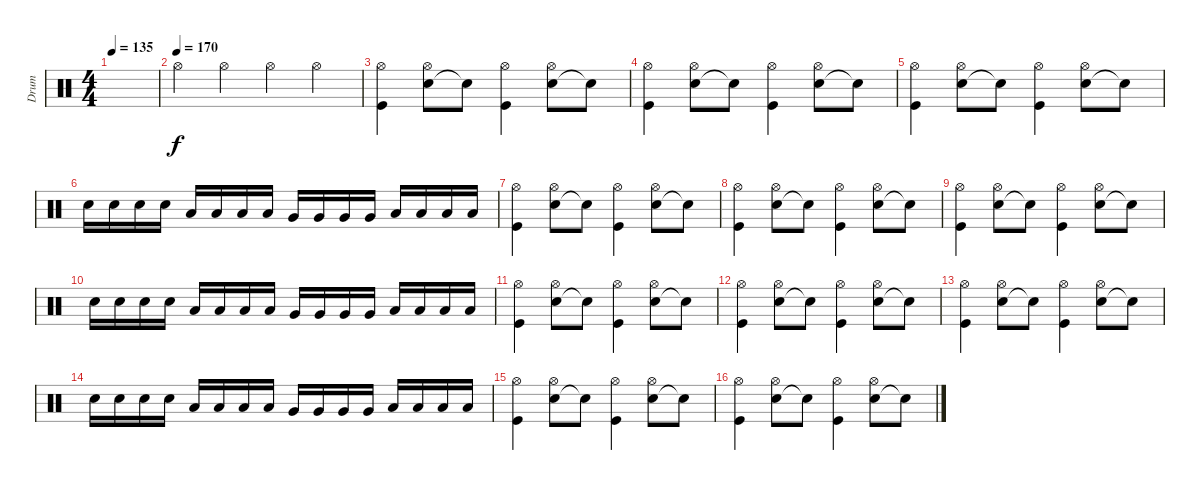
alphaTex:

\track ("Drum" "Drum") {instrument percussion}
\staff {score}
\articulation defaults
\ts (4 4)
\tempo 135
\clef neutral
\ks c
|
\tempo (170)
"Hi-Hat (open)".4 "Hi-Hat (open)".4 "Hi-Hat (open)".4 "Hi-Hat (open)".4 |
("Hi-Hat (open)" "Kick (hit)").4 ("Snare (hit) 2" "Hi-Hat (open)").8 "Electric Snare (hit)"{t}.8 ("Hi-Hat (open)" "Kick (hit)").4 ("Snare (hit) 2" "Hi-Hat (open)").8 "Electric Snare (hit)"{t}.8 |
("Hi-Hat (open)" "Kick (hit)").4 ("Snare (hit) 2" "Hi-Hat (open)").8 "Electric Snare (hit)"{t}.8 ("Hi-Hat (open)" "Kick (hit)").4 ("Snare (hit) 2" "Hi-Hat (open)").8 "Electric Snare (hit)"{t}.8 |
("Hi-Hat (open)" "Kick (hit)").4 ("Snare (hit) 2" "Hi-Hat (open)").8 "Electric Snare (hit)"{t}.8 ("Hi-Hat (open)" "Kick (hit)").4 ("Snare (hit) 2" "Hi-Hat (open)").8 "Electric Snare (hit)"{t}.8 |
"Electric Snare (hit)".16 "Electric Snare (hit)".16 "Electric Snare (hit)".16 "Electric Snare (hit)".16 "Low Tom (hit)".16 "Low Tom (hit)".16 "Low Tom (hit)".16 "Low Tom (hit)".16 "Very Low Tom (hit)".16 "Very Low Tom (hit)".16 "Very Low Tom (hit)".16 "Very Low Tom (hit)".16 "Low Floor Tom (hit)".16 "Low Floor Tom (hit)".16 "Low Floor Tom (hit)".16 "Low Floor Tom (hit)".16 |
("Hi-Hat (open)" "Kick (hit)").4 ("Snare (hit) 2" "Hi-Hat (open)").8 "Electric Snare (hit)"{t}.8 ("Hi-Hat (open)" "Kick (hit)").4 ("Snare (hit) 2" "Hi-Hat (open)").8 "Electric Snare (hit)"{t}.8 |
("Hi-Hat (open)" "Kick (hit)").4 ("Snare (hit) 2" "Hi-Hat (open)").8 "Electric Snare (hit)"{t}.8 ("Hi-Hat (open)" "Kick (hit)").4 ("Snare (hit) 2" "Hi-Hat (open)").8 "Electric Snare (hit)"{t}.8 |
("Hi-Hat (open)" "Kick (hit)").4 ("Snare (hit) 2" "Hi-Hat (open)").8 "Electric Snare (hit)"{t}.8 ("Hi-Hat (open)" "Kick (hit)").4 ("Snare (hit) 2" "Hi-Hat (open)").8 "Electric Snare (hit)"{t}.8 |
"Electric Snare (hit)".16 "Electric Snare (hit)".16 "Electric Snare (hit)".16 "Electric Snare (hit)".16 "Low Tom (hit)".16 "Low Tom (hit)".16 "Low Tom (hit)".16 "Low Tom (hit)".16 "Very Low Tom (hit)".16 "Very Low Tom (hit)".16 "Very Low Tom (hit)".16 "Very Low Tom (hit)".16 "Low Floor Tom (hit)".16 "Low Floor Tom (hit)".16 "Low Floor Tom (hit)".16 "Low Floor Tom (hit)".16 |
("Hi-Hat (open)" "Kick (hit)").4 ("Snare (hit) 2" "Hi-Hat (open)").8 "Electric Snare (hit)"{t}.8 ("Hi-Hat (open)" "Kick (hit)").4 ("Snare (hit) 2" "Hi-Hat (open)").8 "Electric Snare (hit)"{t}.8 |
("Hi-Hat (open)" "Kick (hit)").4 ("Snare (hit) 2" "Hi-Hat (open)").8 "Electric Snare (hit)"{t}.8 ("Hi-Hat (open)" "Kick (hit)").4 ("Snare (hit) 2" "Hi-Hat (open)").8 "Electric Snare (hit)"{t}.8 |
("Hi-Hat (open)" "Kick (hit)").4 ("Snare (hit) 2" "Hi-Hat (open)").8 "Electric Snare (hit)"{t}.8 ("Hi-Hat (open)" "Kick (hit)").4 ("Snare (hit) 2" "Hi-Hat (open)").8 "Electric Snare (hit)"{t}.8 |
"Electric Snare (hit)".16 "Electric Snare (hit)".16 "Electric Snare (hit)".16 "Electric Snare (hit)".16 "Low Tom (hit)".16 "Low Tom (hit)".16 "Low Tom (hit)".16 "Low Tom (hit)".16 "Very Low Tom (hit)".16 "Very Low Tom (hit)".16 "Very Low Tom (hit)".16 "Very Low Tom (hit)".16 "Low Floor Tom (hit)".16 "Low Floor Tom (hit)".16 "Low Floor Tom (hit)".16 "Low Floor Tom (hit)".16 |
("Hi-Hat (open)" "Kick (hit)").4 ("Snare (hit) 2" "Hi-Hat (open)").8 "Electric Snare (hit)"{t}.8 ("Hi-Hat (open)" "Kick (hit)").4 ("Snare (hit) 2" "Hi-Hat (open)").8 "Electric Snare (hit)"{t}.8 |
("Hi-Hat (open)" "Kick (hit)").4 ("Snare (hit) 2" "Hi-Hat (open)").8 "Electric Snare (hit)"{t}.8 ("Hi-Hat (open)" "Kick (hit)").4 ("Snare (hit) 2" "Hi-Hat (open)").8 "Electric Snare (hit)"{t}.8
